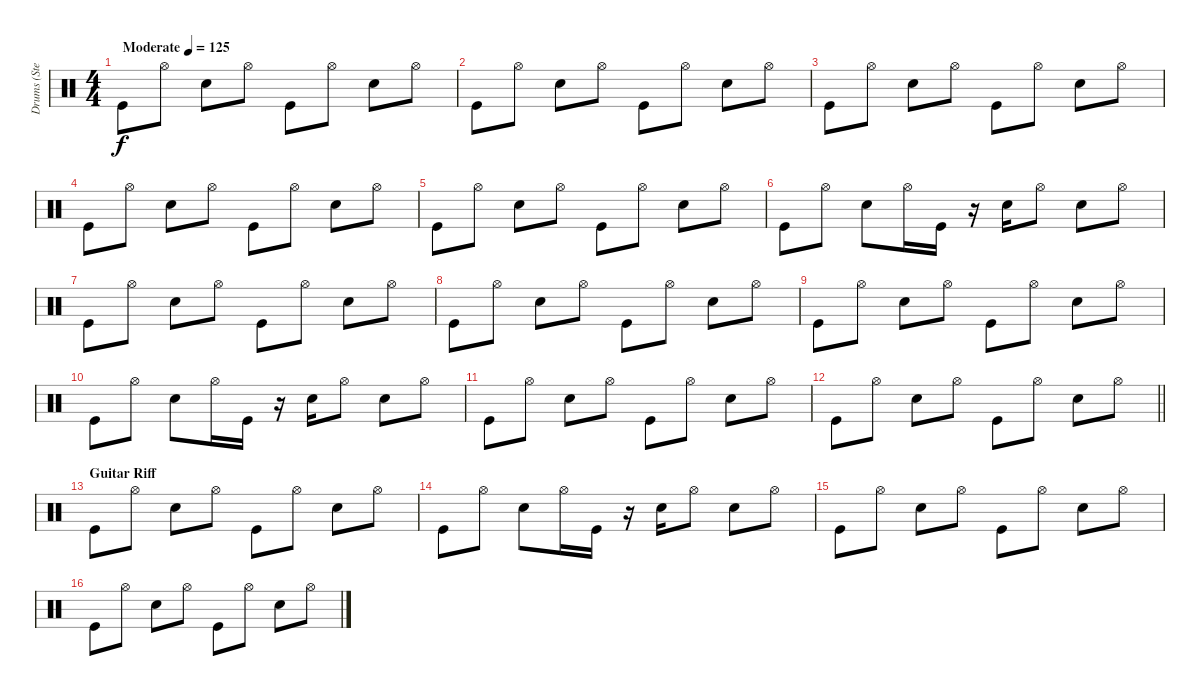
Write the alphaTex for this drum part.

\track ("Drums (Steve)" "Drums (Ste") {instrument percussion}
\staff {score}
\articulation defaults
\ts (4 4)
\tempo (125 "Moderate")
\clef neutral
\ks c "Kick (hit)".8{dy f} "Hi-Hat (open)".8 "Electric Snare (hit)".8 "Hi-Hat (open)".8 "Kick (hit)".8 "Hi-Hat (open)".8 "Electric Snare (hit)".8 "Hi-Hat (open)".8
|
"Kick (hit)".8 "Hi-Hat (open)".8 "Electric Snare (hit)".8 "Hi-Hat (open)".8 "Kick (hit)".8 "Hi-Hat (open)".8 "Electric Snare (hit)".8 "Hi-Hat (open)".8 |
"Kick (hit)".8 "Hi-Hat (open)".8 "Electric Snare (hit)".8 "Hi-Hat (open)".8 "Kick (hit)".8 "Hi-Hat (open)".8 "Electric Snare (hit)".8 "Hi-Hat (open)".8 |
"Kick (hit)".8 "Hi-Hat (open)".8 "Electric Snare (hit)".8 "Hi-Hat (open)".8 "Kick (hit)".8 "Hi-Hat (open)".8 "Electric Snare (hit)".8 "Hi-Hat (open)".8 |
"Kick (hit)".8{volume 13} "Hi-Hat (open)".8 "Electric Snare (hit)".8 "Hi-Hat (open)".8 "Kick (hit)".8 "Hi-Hat (open)".8 "Electric Snare (hit)".8 "Hi-Hat (open)".8 |
"Kick (hit)".8 "Hi-Hat (open)".8 "Electric Snare (hit)".8 "Hi-Hat (open)".16 "Kick (hit)".16 r.16 "Electric Snare (hit)".16 "Hi-Hat (open)".8 "Electric Snare (hit)".8 "Hi-Hat (open)".8 |
"Kick (hit)".8 "Hi-Hat (open)".8 "Electric Snare (hit)".8 "Hi-Hat (open)".8 "Kick (hit)".8 "Hi-Hat (open)".8 "Electric Snare (hit)".8 "Hi-Hat (open)".8 |
"Kick (hit)".8 "Hi-Hat (open)".8 "Electric Snare (hit)".8 "Hi-Hat (open)".8 "Kick (hit)".8 "Hi-Hat (open)".8 "Electric Snare (hit)".8 "Hi-Hat (open)".8 |
"Kick (hit)".8 "Hi-Hat (open)".8 "Electric Snare (hit)".8 "Hi-Hat (open)".8 "Kick (hit)".8 "Hi-Hat (open)".8 "Electric Snare (hit)".8 "Hi-Hat (open)".8 |
"Kick (hit)".8 "Hi-Hat (open)".8 "Electric Snare (hit)".8 "Hi-Hat (open)".16 "Kick (hit)".16 r.16 "Electric Snare (hit)".16 "Hi-Hat (open)".8 "Electric Snare (hit)".8 "Hi-Hat (open)".8 |
"Kick (hit)".8 "Hi-Hat (open)".8 "Electric Snare (hit)".8 "Hi-Hat (open)".8 "Kick (hit)".8 "Hi-Hat (open)".8 "Electric Snare (hit)".8 "Hi-Hat (open)".8 |
\barLineRight lightlight "Kick (hit)".8 "Hi-Hat (open)".8 "Electric Snare (hit)".8 "Hi-Hat (open)".8 "Kick (hit)".8 "Hi-Hat (open)".8 "Electric Snare (hit)".8 "Hi-Hat (open)".8
|
\section ("" "Guitar Riff")
"Kick (hit)".8 "Hi-Hat (open)".8 "Electric Snare (hit)".8 "Hi-Hat (open)".8 "Kick (hit)".8 "Hi-Hat (open)".8 "Electric Snare (hit)".8 "Hi-Hat (open)".8 |
"Kick (hit)".8 "Hi-Hat (open)".8 "Electric Snare (hit)".8 "Hi-Hat (open)".16 "Kick (hit)".16 r.16 "Electric Snare (hit)".16 "Hi-Hat (open)".8 "Electric Snare (hit)".8 "Hi-Hat (open)".8 |
"Kick (hit)".8 "Hi-Hat (open)".8 "Electric Snare (hit)".8 "Hi-Hat (open)".8 "Kick (hit)".8 "Hi-Hat (open)".8 "Electric Snare (hit)".8 "Hi-Hat (open)".8 |
"Kick (hit)".8 "Hi-Hat (open)".8 "Electric Snare (hit)".8 "Hi-Hat (open)".8 "Kick (hit)".8 "Hi-Hat (open)".8 "Electric Snare (hit)".8 "Hi-Hat (open)".8
